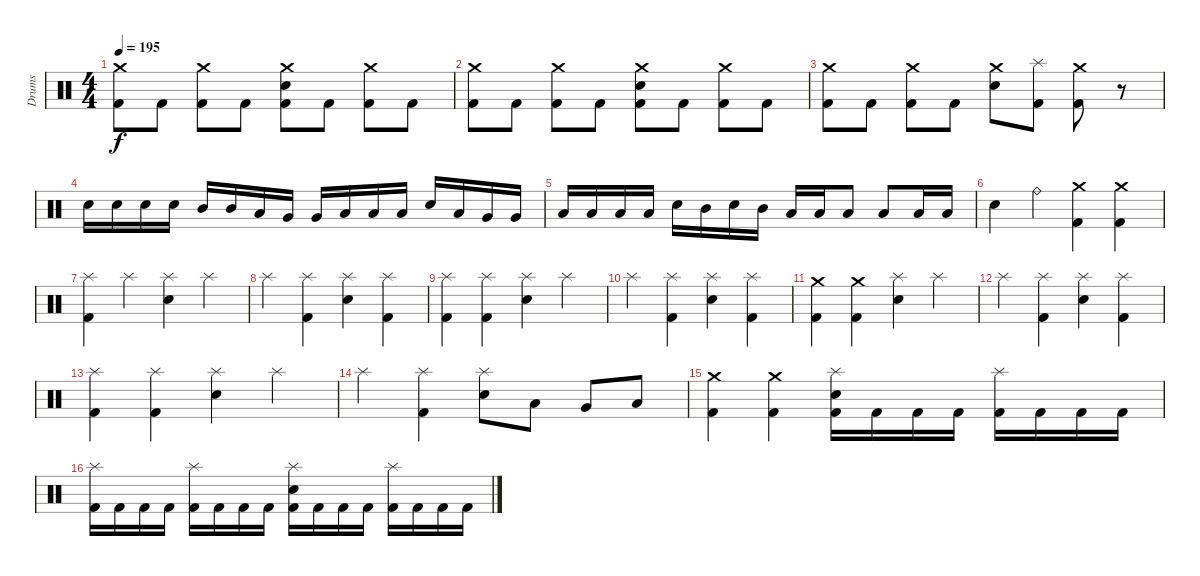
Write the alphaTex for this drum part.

\track ("Drums" "Drums") {instrument percussion}
\staff {score}
\articulation defaults
\ts (4 4)
\tempo 195
\clef neutral
\ks c
("Crash medium (hit)" "Kick (hit) 2").8{dy f} "Kick (hit) 2".8 ("Crash medium (hit)" "Kick (hit) 2").8 "Kick (hit) 2".8 ("Crash medium (hit)" "Electric Snare (hit)" "Kick (hit) 2").8 "Kick (hit) 2".8 ("Crash medium (hit)" "Kick (hit) 2").8 "Kick (hit) 2".8 |
("Crash medium (hit)" "Kick (hit) 2").8 "Kick (hit) 2".8 ("Crash medium (hit)" "Kick (hit) 2").8 "Kick (hit) 2".8 ("Crash medium (hit)" "Electric Snare (hit)" "Kick (hit) 2").8 "Kick (hit) 2".8 ("Crash medium (hit)" "Kick (hit) 2").8 "Kick (hit) 2".8 |
("Crash medium (hit)" "Kick (hit) 2").8 "Kick (hit) 2".8 ("Crash medium (hit)" "Kick (hit) 2").8 "Kick (hit) 2".8 ("Crash medium (hit)" "Electric Snare (hit)").8 ("Splash (hit)" "Kick (hit) 2").8 ("Crash medium (hit)" "Kick (hit) 2").8 r.8 |
"Electric Snare (hit)".16 "Electric Snare (hit)".16 "Electric Snare (hit)".16 "Electric Snare (hit)".16 "Mid Tom (hit)".16 "Mid Tom (hit)".16 "Low Tom (hit)".16 "Very Low Tom (hit)".16 "Very Low Tom (hit)".16 "Low Floor Tom (hit)".16 "Low Floor Tom (hit)".16 "Low Floor Tom (hit)".16 "Electric Snare (hit)".16 "Low Tom (hit)".16 "Very Low Tom (hit)".16 "Very Low Tom (hit)".16 |
"Low Floor Tom (hit)".16 "Low Floor Tom (hit)".16 "Low Floor Tom (hit)".16 "Low Floor Tom (hit)".16 "Electric Snare (hit)".16 "Mid Tom (hit)".16 "Electric Snare (hit)".16 "Mid Tom (hit)".16 "Low Tom (hit)".16 "Low Tom (hit)".16 "Low Floor Tom (hit)".8 "Low Floor Tom (hit)".8 "Low Floor Tom (hit)".16 "Low Floor Tom (hit)".16 |
"Electric Snare (hit)".4 "Ride (bell)".4 ("Crash medium (hit)" "Kick (hit) 2").4 ("Crash medium (hit)" "Kick (hit) 2").4 |
("Splash (hit)" "Kick (hit) 2").4 "Splash (hit)".4 ("Splash (hit)" "Electric Snare (hit)").4 "Splash (hit)".4 |
"Splash (hit)".4 ("Splash (hit)" "Kick (hit) 2").4 ("Splash (hit)" "Electric Snare (hit)").4 ("Splash (hit)" "Kick (hit) 2").4 |
("Splash (hit)" "Kick (hit) 2").4 ("Splash (hit)" "Kick (hit) 2").4 ("Splash (hit)" "Electric Snare (hit)").4 "Splash (hit)".4 |
"Splash (hit)".4 ("Splash (hit)" "Kick (hit) 2").4 ("Splash (hit)" "Electric Snare (hit)").4 ("Splash (hit)" "Kick (hit) 2").4 |
("Crash medium (hit)" "Kick (hit) 2").4 ("Crash medium (hit)" "Kick (hit) 2").4 ("Splash (hit)" "Electric Snare (hit)").4 "Splash (hit)".4 |
"Splash (hit)".4 ("Splash (hit)" "Kick (hit) 2").4 ("Splash (hit)" "Electric Snare (hit)").4 ("Splash (hit)" "Kick (hit) 2").4 |
("Splash (hit)" "Kick (hit) 2").4 ("Splash (hit)" "Kick (hit) 2").4 ("Splash (hit)" "Electric Snare (hit)").4 "Splash (hit)".4 |
"Splash (hit)".4 ("Splash (hit)" "Kick (hit) 2").4 ("Splash (hit)" "Electric Snare (hit)").8 "Low Tom (hit)".8 "Very Low Tom (hit)".8 "Low Floor Tom (hit)".8 |
("Crash medium (hit)" "Kick (hit) 2").4 ("Crash medium (hit)" "Kick (hit) 2").4 ("Splash (hit)" "Electric Snare (hit)" "Kick (hit) 2").16 "Kick (hit) 2".16 "Kick (hit) 2".16 "Kick (hit) 2".16 ("Splash (hit)" "Kick (hit) 2").16 "Kick (hit) 2".16 "Kick (hit) 2".16 "Kick (hit) 2".16 |
("Splash (hit)" "Kick (hit) 2").16 "Kick (hit) 2".16 "Kick (hit) 2".16 "Kick (hit) 2".16 ("Splash (hit)" "Kick (hit) 2").16 "Kick (hit) 2".16 "Kick (hit) 2".16 "Kick (hit) 2".16 ("Splash (hit)" "Electric Snare (hit)" "Kick (hit) 2").16 "Kick (hit) 2".16 "Kick (hit) 2".16 "Kick (hit) 2".16 ("Splash (hit)" "Kick (hit) 2").16 "Kick (hit) 2".16 "Kick (hit) 2".16 "Kick (hit) 2".16
